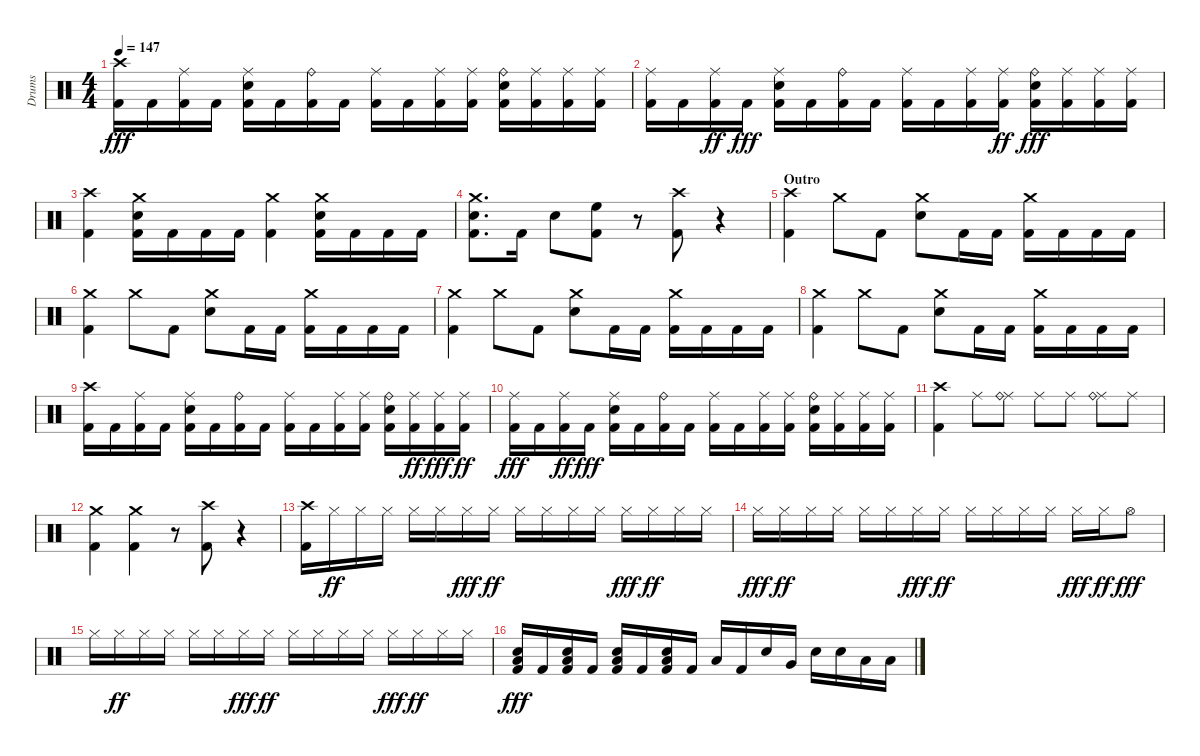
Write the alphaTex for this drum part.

\track ("Drums" "Drums") {instrument percussion}
\staff {score}
\articulation defaults
\ts (4 4)
\tempo 147
\clef neutral
\ks aminor
("Crash high (hit)" "Kick (hit) 2").16{dy fff} "Kick (hit) 2".16 ("Kick (hit) 2" "Ride (middle)").16 "Kick (hit) 2".16 ("Snare (hit) 2" "Kick (hit) 2" "Ride (middle)").16 "Kick (hit) 2".16 ("Kick (hit) 2" "Ride (bell)").16 "Kick (hit) 2".16 ("Kick (hit) 2" "Ride (middle)").16 "Kick (hit) 2".16 ("Kick (hit) 2" "Ride (middle)").16 ("Kick (hit) 2" "Ride (middle)").16 ("Ride (bell)" "Kick (hit) 2" "Snare (hit) 2").16 ("Kick (hit) 2" "Ride (middle)").16 ("Kick (hit) 2" "Ride (middle)").16 ("Kick (hit) 2" "Ride (middle)").16 |
("Kick (hit) 2" "Ride (middle)").16 "Kick (hit) 2".16 ("Ride (middle)" "Kick (hit) 2").16{dy ff} "Kick (hit) 2".16{dy fff} ("Snare (hit) 2" "Ride (middle)" "Kick (hit) 2").16 "Kick (hit) 2".16 ("Kick (hit) 2" "Ride (bell)").16 "Kick (hit) 2".16 ("Kick (hit) 2" "Ride (middle)").16 "Kick (hit) 2".16 ("Ride (middle)" "Kick (hit) 2").16 ("Ride (middle)" "Kick (hit) 2").16{dy ff} ("Kick (hit) 2" "Snare (hit) 2" "Ride (bell)").16{dy fff} ("Kick (hit) 2" "Ride (middle)").16 ("Ride (middle)" "Kick (hit) 2").16 ("Ride (middle)" "Kick (hit) 2").16 |
("Crash high (hit)" "Kick (hit) 2").4 ("Kick (hit) 2" "Snare (hit) 2" "Crash medium (hit)").16 "Kick (hit) 2".16 "Kick (hit) 2".16 "Kick (hit) 2".16 ("Kick (hit) 2" "Crash medium (hit)").4 ("Crash medium (hit)" "Kick (hit) 2" "Snare (hit) 2").16 "Kick (hit) 2".16 "Kick (hit) 2".16 "Kick (hit) 2".16 |
("Kick (hit) 2" "Snare (hit) 2" "Crash medium (hit)").8{d} "Kick (hit) 2".16 "Snare (hit) 2".8 ("Kick (hit) 2" "High Floor Tom (hit)").8 r.8 ("Kick (hit) 2" "Crash high (hit)").8 r.4 |
\section ("" "Outro")
("Kick (hit) 2" "Crash high (hit)").4 "Crash medium (hit)".8 "Kick (hit) 2".8 ("Crash medium (hit)" "Snare (hit) 2").8 "Kick (hit) 2".16 "Kick (hit) 2".16 ("Kick (hit) 2" "Crash medium (hit)").16 "Kick (hit) 2".16 "Kick (hit) 2".16 "Kick (hit) 2".16 |
("Kick (hit) 2" "Crash medium (hit)").4 "Crash medium (hit)".8 "Kick (hit) 2".8 ("Snare (hit) 2" "Crash medium (hit)").8 "Kick (hit) 2".16 "Kick (hit) 2".16 ("Kick (hit) 2" "Crash medium (hit)").16 "Kick (hit) 2".16 "Kick (hit) 2".16 "Kick (hit) 2".16 |
("Kick (hit) 2" "Crash medium (hit)").4 "Crash medium (hit)".8 "Kick (hit) 2".8 ("Snare (hit) 2" "Crash medium (hit)").8 "Kick (hit) 2".16 "Kick (hit) 2".16 ("Crash medium (hit)" "Kick (hit) 2").16 "Kick (hit) 2".16 "Kick (hit) 2".16 "Kick (hit) 2".16 |
("Kick (hit) 2" "Crash medium (hit)").4 "Crash medium (hit)".8 "Kick (hit) 2".8 ("Crash medium (hit)" "Snare (hit) 2").8 "Kick (hit) 2".16 "Kick (hit) 2".16 ("Crash medium (hit)" "Kick (hit) 2").16 "Kick (hit) 2".16 "Kick (hit) 2".16 "Kick (hit) 2".16 |
("Kick (hit) 2" "Crash high (hit)").16 "Kick (hit) 2".16 ("Kick (hit) 2" "Ride (middle)").16 "Kick (hit) 2".16 ("Ride (middle)" "Kick (hit) 2" "Snare (hit) 2").16 "Kick (hit) 2".16 ("Kick (hit) 2" "Ride (bell)").16 "Kick (hit) 2".16 ("Kick (hit) 2" "Ride (middle)").16 "Kick (hit) 2".16 ("Kick (hit) 2" "Ride (middle)").16 ("Kick (hit) 2" "Ride (middle)").16 ("Ride (bell)" "Kick (hit) 2" "Snare (hit) 2").16 ("Ride (middle)" "Kick (hit) 2").16{dy ff} ("Kick (hit) 2" "Ride (middle)").16{dy fff} ("Kick (hit) 2" "Ride (middle)").16{dy ff} |
("Ride (middle)" "Kick (hit) 2").16{dy fff} "Kick (hit) 2".16 ("Kick (hit) 2" "Ride (middle)").16{dy ff} "Kick (hit) 2".16{dy fff} ("Ride (middle)" "Kick (hit) 2" "Snare (hit) 2").16 "Kick (hit) 2".16 ("Kick (hit) 2" "Ride (bell)").16 "Kick (hit) 2".16 ("Ride (middle)" "Kick (hit) 2").16 "Kick (hit) 2".16 ("Kick (hit) 2" "Ride (middle)").16 ("Kick (hit) 2" "Ride (middle)").16 ("Ride (bell)" "Kick (hit) 2" "Snare (hit) 2").16 ("Kick (hit) 2" "Ride (middle)").16 ("Kick (hit) 2" "Ride (middle)").16 ("Kick (hit) 2" "Ride (middle)").16 |
("Kick (hit) 2" "Crash high (hit)").4 "Ride (middle)".8 ("Ride (middle)" "Ride (bell)").8 "Ride (middle)".8 "Ride (middle)".8 ("Ride (middle)" "Ride (bell)").8 "Ride (middle)".8 |
("Kick (hit) 2" "Crash medium (hit)").4 ("Kick (hit) 2" "Crash medium (hit)").4 r.8 ("Kick (hit) 2" "Crash high (hit)").8 r.4 |
("Kick (hit) 2" "Crash high (hit)").16 "Hi-Hat (closed)".16{dy ff} "Hi-Hat (closed)".16 "Hi-Hat (closed)".16 "Hi-Hat (closed)".16 "Hi-Hat (closed)".16 "Hi-Hat (closed)".16{dy fff} "Hi-Hat (closed)".16{dy ff} "Hi-Hat (closed)".16 "Hi-Hat (closed)".16 "Hi-Hat (closed)".16 "Hi-Hat (closed)".16 "Hi-Hat (closed)".16{dy fff} "Hi-Hat (closed)".16{dy ff} "Hi-Hat (closed)".16 "Hi-Hat (closed)".16 |
"Hi-Hat (closed)".16{dy fff} "Hi-Hat (closed)".16{dy ff} "Hi-Hat (closed)".16 "Hi-Hat (closed)".16 "Hi-Hat (closed)".16 "Hi-Hat (closed)".16 "Hi-Hat (closed)".16{dy fff} "Hi-Hat (closed)".16{dy ff} "Hi-Hat (closed)".16 "Hi-Hat (closed)".16 "Hi-Hat (closed)".16 "Hi-Hat (closed)".16 "Hi-Hat (closed)".16{dy fff} "Hi-Hat (closed)".16{dy ff} "Hi-Hat (open)".8{dy fff} |
"Hi-Hat (closed)".16 "Hi-Hat (closed)".16{dy ff} "Hi-Hat (closed)".16 "Hi-Hat (closed)".16 "Hi-Hat (closed)".16 "Hi-Hat (closed)".16 "Hi-Hat (closed)".16{dy fff} "Hi-Hat (closed)".16{dy ff} "Hi-Hat (closed)".16 "Hi-Hat (closed)".16 "Hi-Hat (closed)".16 "Hi-Hat (closed)".16 "Hi-Hat (closed)".16{dy fff} "Hi-Hat (closed)".16{dy ff} "Hi-Hat (closed)".16 "Hi-Hat (closed)".16 |
("Kick (hit) 2" "Snare (hit) 2" "Low Floor Tom (hit)").16{dy fff} "Kick (hit) 2".16 ("Snare (hit) 2" "Kick (hit) 2" "Low Floor Tom (hit)").16 "Kick (hit) 2".16 ("Kick (hit) 2" "Snare (hit) 2" "Low Floor Tom (hit)").16 "Kick (hit) 2".16 ("Snare (hit) 2" "Low Floor Tom (hit)" "Kick (hit) 2").16 "Kick (hit) 2".16 "Low Tom (hit)".16 "Kick (hit) 2".16 "Snare (hit) 2".16 "Very Low Tom (hit)".16 "Snare (hit) 2".16 "Snare (hit) 2".16 "Low Floor Tom (hit)".16 "Low Floor Tom (hit)".16
